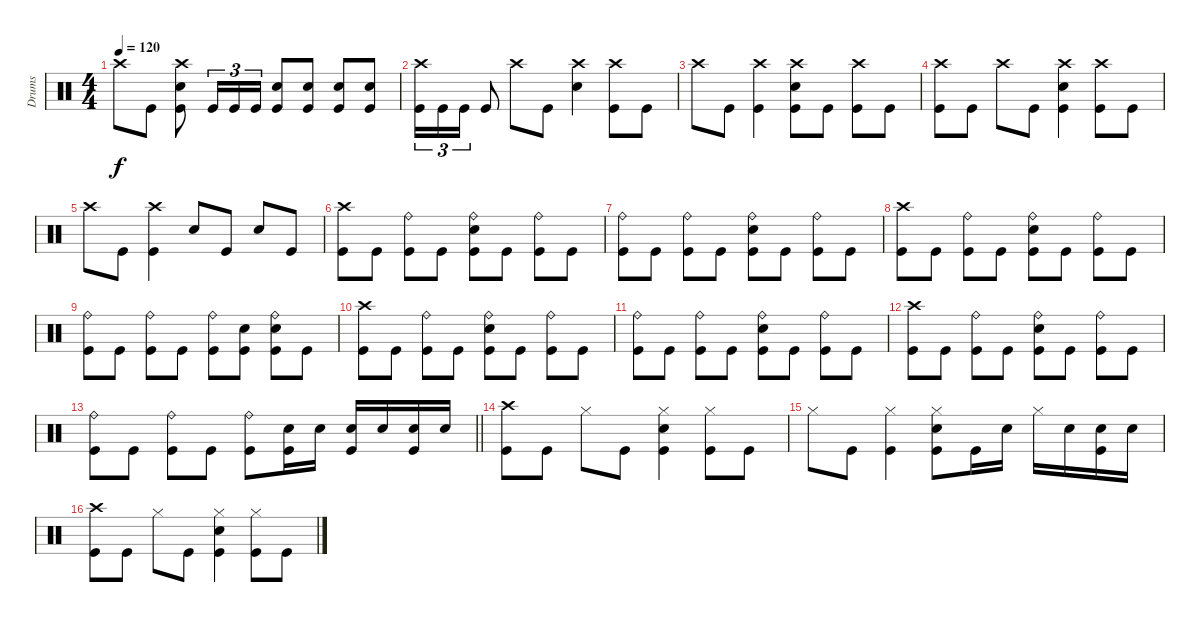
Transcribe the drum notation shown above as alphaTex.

\track ("Drums" "Drums") {instrument percussion}
\staff {score}
\articulation defaults
\ts (4 4)
\tempo 120
\clef neutral
\ks c "Crash high (hit)".8{dy f} "Kick (hit)".8
("Kick (hit)" "Snare (hit) 2" "Crash high (hit)").8 "Kick (hit)".16{tu (3 2)} "Kick (hit)".16{tu (3 2)} "Kick (hit)".16{tu (3 2)} ("Kick (hit)" "Snare (hit) 2").8 ("Kick (hit)" "Snare (hit) 2").8 ("Kick (hit)" "Snare (hit) 2").8 ("Kick (hit)" "Snare (hit) 2").8 |
("Crash high (hit)" "Kick (hit)").16{tu (3 2)} "Kick (hit)".16{tu (3 2)} "Kick (hit)".16{tu (3 2)} "Kick (hit)".8 "Crash high (hit)".8 "Kick (hit)".8 ("Snare (hit) 2" "Crash high (hit)").4 ("Crash high (hit)" "Kick (hit)").8 "Kick (hit)".8 |
"Crash high (hit)".8 "Kick (hit)".8 ("Crash high (hit)" "Kick (hit)").4 ("Snare (hit) 2" "Crash high (hit)" "Kick (hit)").8 "Kick (hit)".8 ("Kick (hit)" "Crash high (hit)").8 "Kick (hit)".8 |
("Kick (hit)" "Crash high (hit)").8 "Kick (hit)".8 "Crash high (hit)".8 "Kick (hit)".8 ("Kick (hit)" "Snare (hit) 2" "Crash high (hit)").4 ("Kick (hit)" "Crash high (hit)").8 "Kick (hit)".8 |
"Crash high (hit)".8 "Kick (hit)".8 ("Kick (hit)" "Crash high (hit)").4 "Snare (hit) 2".8 "Kick (hit)".8 "Snare (hit) 2".8 "Kick (hit)".8 |
("Crash high (hit)" "Kick (hit)").8 "Kick (hit)".8 ("Ride (bell)" "Kick (hit)").8 "Kick (hit)".8 ("Snare (hit) 2" "Ride (bell)" "Kick (hit)").8 "Kick (hit)".8 ("Ride (bell)" "Kick (hit)").8 "Kick (hit)".8 |
("Kick (hit)" "Ride (bell)").8 "Kick (hit)".8 ("Kick (hit)" "Ride (bell)").8 "Kick (hit)".8 ("Kick (hit)" "Snare (hit) 2" "Ride (bell)").8 "Kick (hit)".8 ("Kick (hit)" "Ride (bell)").8 "Kick (hit)".8 |
("Kick (hit)" "Crash high (hit)").8 "Kick (hit)".8 ("Kick (hit)" "Ride (bell)").8 "Kick (hit)".8 ("Kick (hit)" "Snare (hit) 2" "Ride (bell)").8 "Kick (hit)".8 ("Kick (hit)" "Ride (bell)").8 "Kick (hit)".8 |
("Ride (bell)" "Kick (hit)").8 "Kick (hit)".8 ("Ride (bell)" "Kick (hit)").8 "Kick (hit)".8 ("Ride (bell)" "Kick (hit)").8 ("Snare (hit) 2" "Kick (hit)").8 ("Snare (hit) 2" "Ride (bell)" "Kick (hit)").8 "Kick (hit)".8 |
("Kick (hit)" "Crash high (hit)").8 "Kick (hit)".8 ("Kick (hit)" "Ride (bell)").8 "Kick (hit)".8 ("Kick (hit)" "Snare (hit) 2" "Ride (bell)").8 "Kick (hit)".8 ("Kick (hit)" "Ride (bell)").8 "Kick (hit)".8 |
("Ride (bell)" "Kick (hit)").8 "Kick (hit)".8 ("Ride (bell)" "Kick (hit)").8 "Kick (hit)".8 ("Snare (hit) 2" "Ride (bell)" "Kick (hit)").8 "Kick (hit)".8 ("Ride (bell)" "Kick (hit)").8 "Kick (hit)".8 |
("Crash high (hit)" "Kick (hit)").8 "Kick (hit)".8 ("Ride (bell)" "Kick (hit)").8 "Kick (hit)".8 ("Snare (hit) 2" "Ride (bell)" "Kick (hit)").8 "Kick (hit)".8 ("Ride (bell)" "Kick (hit)").8 "Kick (hit)".8 |
\barLineRight lightlight
("Kick (hit)" "Ride (bell)").8 "Kick (hit)".8 ("Kick (hit)" "Ride (bell)").8 "Kick (hit)".8 ("Kick (hit)" "Ride (bell)").8 ("Kick (hit)" "Snare (hit) 2").16 "Snare (hit) 2".16 ("Snare (hit) 2" "Kick (hit)").16 "Snare (hit) 2".16 ("Snare (hit) 2" "Kick (hit)").16 "Snare (hit) 2".16 |
("Crash high (hit)" "Kick (hit)").8 "Kick (hit)".8 "Hi-Hat (closed)".8 "Kick (hit)".8 ("Snare (hit) 2" "Hi-Hat (closed)" "Kick (hit)").4 ("Hi-Hat (closed)" "Kick (hit)").8 "Kick (hit)".8 |
"Hi-Hat (closed)".8 "Kick (hit)".8 ("Kick (hit)" "Hi-Hat (closed)").4 ("Kick (hit)" "Snare (hit) 2" "Hi-Hat (closed)").8 "Kick (hit)".16 "Snare (hit) 2".16 "Hi-Hat (closed)".16 "Snare (hit) 2".16 ("Kick (hit)" "Snare (hit) 2").16 "Snare (hit) 2".16 |
("Kick (hit)" "Crash high (hit)").8 "Kick (hit)".8 "Hi-Hat (closed)".8 "Kick (hit)".8 ("Kick (hit)" "Snare (hit) 2" "Hi-Hat (closed)").4 ("Kick (hit)" "Hi-Hat (closed)").8 "Kick (hit)".8
